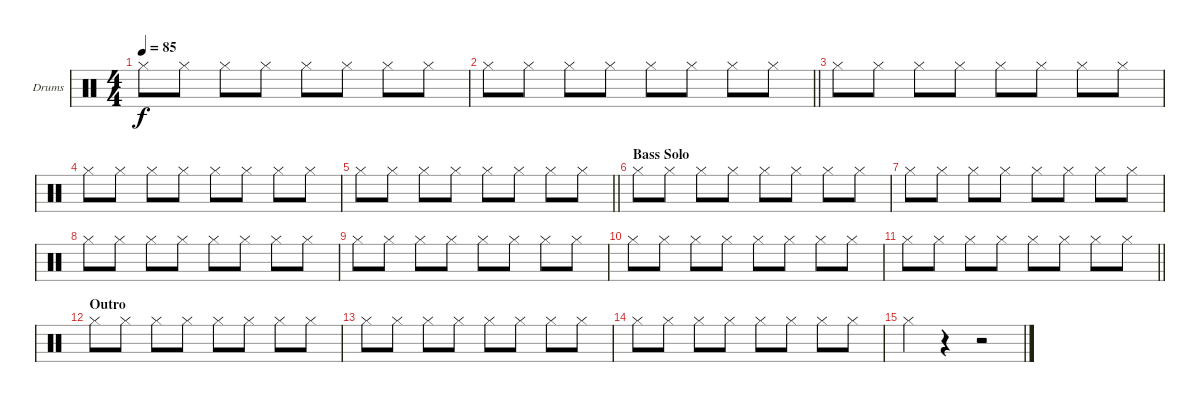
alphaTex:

\bracketExtendMode groupsimilarinstruments
\firstSystemTrackNameOrientation horizontal
\otherSystemsTrackNameOrientation horizontal
\track ("Drumkit" "Drums") {instrument percussion}
\staff {score}
\articulation defaults
\ts (4 4)
\tempo 85
\clef neutral
\ks c "Hi-Hat (closed)".8{dy f} "Hi-Hat (closed)".8 "Hi-Hat (closed)".8 "Hi-Hat (closed)".8 "Hi-Hat (closed)".8 "Hi-Hat (closed)".8 "Hi-Hat (closed)".8 "Hi-Hat (closed)".8
|
\barLineRight lightlight "Hi-Hat (closed)".8 "Hi-Hat (closed)".8 "Hi-Hat (closed)".8 "Hi-Hat (closed)".8 "Hi-Hat (closed)".8 "Hi-Hat (closed)".8 "Hi-Hat (closed)".8 "Hi-Hat (closed)".8
|
"Hi-Hat (closed)".8 "Hi-Hat (closed)".8 "Hi-Hat (closed)".8 "Hi-Hat (closed)".8 "Hi-Hat (closed)".8 "Hi-Hat (closed)".8 "Hi-Hat (closed)".8 "Hi-Hat (closed)".8 |
"Hi-Hat (closed)".8 "Hi-Hat (closed)".8 "Hi-Hat (closed)".8 "Hi-Hat (closed)".8 "Hi-Hat (closed)".8 "Hi-Hat (closed)".8 "Hi-Hat (closed)".8 "Hi-Hat (closed)".8 |
\barLineRight lightlight "Hi-Hat (closed)".8 "Hi-Hat (closed)".8 "Hi-Hat (closed)".8 "Hi-Hat (closed)".8 "Hi-Hat (closed)".8 "Hi-Hat (closed)".8 "Hi-Hat (closed)".8 "Hi-Hat (closed)".8
|
\section ("" "Bass Solo")
"Hi-Hat (closed)".8 "Hi-Hat (closed)".8 "Hi-Hat (closed)".8 "Hi-Hat (closed)".8 "Hi-Hat (closed)".8 "Hi-Hat (closed)".8 "Hi-Hat (closed)".8 "Hi-Hat (closed)".8 |
"Hi-Hat (closed)".8 "Hi-Hat (closed)".8 "Hi-Hat (closed)".8 "Hi-Hat (closed)".8 "Hi-Hat (closed)".8 "Hi-Hat (closed)".8 "Hi-Hat (closed)".8 "Hi-Hat (closed)".8 |
"Hi-Hat (closed)".8 "Hi-Hat (closed)".8 "Hi-Hat (closed)".8 "Hi-Hat (closed)".8 "Hi-Hat (closed)".8 "Hi-Hat (closed)".8 "Hi-Hat (closed)".8 "Hi-Hat (closed)".8 |
"Hi-Hat (closed)".8 "Hi-Hat (closed)".8 "Hi-Hat (closed)".8 "Hi-Hat (closed)".8 "Hi-Hat (closed)".8 "Hi-Hat (closed)".8 "Hi-Hat (closed)".8 "Hi-Hat (closed)".8 |
"Hi-Hat (closed)".8 "Hi-Hat (closed)".8 "Hi-Hat (closed)".8 "Hi-Hat (closed)".8 "Hi-Hat (closed)".8 "Hi-Hat (closed)".8 "Hi-Hat (closed)".8 "Hi-Hat (closed)".8 |
\barLineRight lightlight "Hi-Hat (closed)".8 "Hi-Hat (closed)".8 "Hi-Hat (closed)".8 "Hi-Hat (closed)".8 "Hi-Hat (closed)".8 "Hi-Hat (closed)".8 "Hi-Hat (closed)".8 "Hi-Hat (closed)".8
|
\section ("" "Outro")
"Hi-Hat (closed)".8 "Hi-Hat (closed)".8 "Hi-Hat (closed)".8 "Hi-Hat (closed)".8 "Hi-Hat (closed)".8 "Hi-Hat (closed)".8 "Hi-Hat (closed)".8 "Hi-Hat (closed)".8 |
"Hi-Hat (closed)".8 "Hi-Hat (closed)".8 "Hi-Hat (closed)".8 "Hi-Hat (closed)".8 "Hi-Hat (closed)".8 "Hi-Hat (closed)".8 "Hi-Hat (closed)".8 "Hi-Hat (closed)".8 |
"Hi-Hat (closed)".8 "Hi-Hat (closed)".8 "Hi-Hat (closed)".8 "Hi-Hat (closed)".8 "Hi-Hat (closed)".8 "Hi-Hat (closed)".8 "Hi-Hat (closed)".8 "Hi-Hat (closed)".8 |
"Hi-Hat (closed)".4 r.4 r.2
